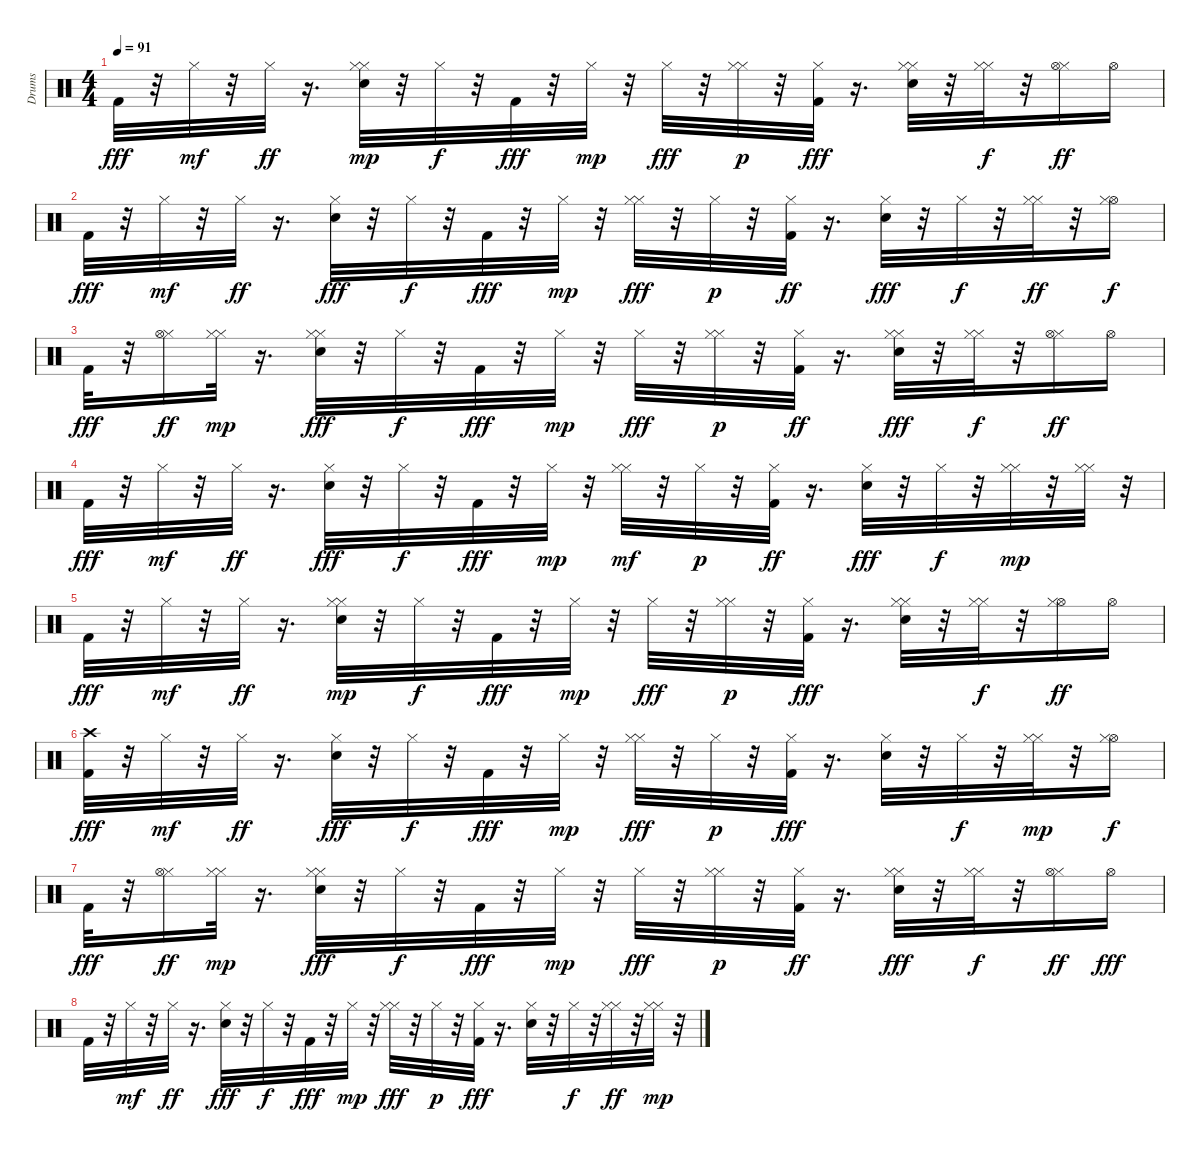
\track ("Drums" "Drums") {instrument percussion}
\staff {score}
\articulation defaults
\ts (4 4)
\tempo 91
\clef neutral
\ks c "Kick (hit) 2".32{dy fff}
r.32 "Hi-Hat (closed)".32{dy mf} r.32 "Hi-Hat (closed)".32{dy ff} r.16{d} ("Hi-Hat (closed)" "Snare (hit) 2" "Hi-Hat (closed)").32{dy mp} r.32 "Hi-Hat (closed)".32{dy f} r.32 "Kick (hit) 2".32{dy fff} r.32 "Hi-Hat (closed)".32{dy mp} r.32 "Hi-Hat (closed)".32{dy fff} r.32 ("Hi-Hat (closed)" "Hi-Hat (closed)").32{dy p} r.32 ("Hi-Hat (closed)" "Kick (hit) 2").32{dy fff} r.16{d} ("Hi-Hat (closed)" "Hi-Hat (closed)" "Snare (hit) 2").32 r.32 ("Hi-Hat (closed)" "Hi-Hat (closed)").32{dy f} r.32 ("Hi-Hat (closed)" "Hi-Hat (open)").16{dy ff} "Hi-Hat (open)".16 |
"Kick (hit) 2".32{dy fff} r.32 "Hi-Hat (closed)".32{dy mf} r.32 "Hi-Hat (closed)".32{dy ff} r.16{d} ("Snare (hit) 2" "Hi-Hat (closed)").32{dy fff} r.32 "Hi-Hat (closed)".32{dy f} r.32 "Kick (hit) 2".32{dy fff} r.32 "Hi-Hat (closed)".32{dy mp} r.32 ("Hi-Hat (closed)" "Hi-Hat (closed)").32{dy fff} r.32 "Hi-Hat (closed)".32{dy p} r.32 ("Kick (hit) 2" "Hi-Hat (closed)").32{dy ff} r.16{d} ("Snare (hit) 2" "Hi-Hat (closed)").32{dy fff} r.32 "Hi-Hat (closed)".32{dy f} r.32 ("Hi-Hat (closed)" "Hi-Hat (closed)").32{dy ff} r.32 ("Hi-Hat (open)" "Hi-Hat (closed)").16{dy f} |
"Kick (hit) 2".32{dy fff} r.32 ("Hi-Hat (closed)" "Hi-Hat (open)").16{dy ff} ("Hi-Hat (closed)" "Hi-Hat (closed)").32{dy mp} r.16{d} ("Hi-Hat (closed)" "Hi-Hat (closed)" "Snare (hit) 2").32{dy fff} r.32 "Hi-Hat (closed)".32{dy f} r.32 "Kick (hit) 2".32{dy fff} r.32 "Hi-Hat (closed)".32{dy mp} r.32 "Hi-Hat (closed)".32{dy fff} r.32 ("Hi-Hat (closed)" "Hi-Hat (closed)").32{dy p} r.32 ("Kick (hit) 2" "Hi-Hat (closed)").32{dy ff} r.16{d} ("Hi-Hat (closed)" "Snare (hit) 2" "Hi-Hat (closed)").32{dy fff} r.32 ("Hi-Hat (closed)" "Hi-Hat (closed)").32{dy f} r.32 ("Hi-Hat (closed)" "Hi-Hat (open)").16{dy ff} "Hi-Hat (open)".16 |
"Kick (hit) 2".32{dy fff} r.32 "Hi-Hat (closed)".32{dy mf} r.32 "Hi-Hat (closed)".32{dy ff} r.16{d} ("Snare (hit) 2" "Hi-Hat (closed)").32{dy fff} r.32 "Hi-Hat (closed)".32{dy f} r.32 "Kick (hit) 2".32{dy fff} r.32 "Hi-Hat (closed)".32{dy mp} r.32 ("Hi-Hat (closed)" "Hi-Hat (closed)").32{dy mf} r.32 "Hi-Hat (closed)".32{dy p} r.32 ("Kick (hit) 2" "Hi-Hat (closed)").32{dy ff} r.16{d} ("Snare (hit) 2" "Hi-Hat (closed)").32{dy fff} r.32 "Hi-Hat (closed)".32{dy f} r.32 ("Hi-Hat (closed)" "Hi-Hat (closed)").32{dy mp} r.32 ("Hi-Hat (closed)" "Hi-Hat (closed)").32 r.32 |
"Kick (hit) 2".32{dy fff} r.32 "Hi-Hat (closed)".32{dy mf} r.32 "Hi-Hat (closed)".32{dy ff} r.16{d} ("Hi-Hat (closed)" "Snare (hit) 2" "Hi-Hat (closed)").32{dy mp} r.32 "Hi-Hat (closed)".32{dy f} r.32 "Kick (hit) 2".32{dy fff} r.32 "Hi-Hat (closed)".32{dy mp} r.32 "Hi-Hat (closed)".32{dy fff} r.32 ("Hi-Hat (closed)" "Hi-Hat (closed)").32{dy p} r.32 ("Hi-Hat (closed)" "Kick (hit) 2").32{dy fff} r.16{d} ("Hi-Hat (closed)" "Hi-Hat (closed)" "Snare (hit) 2").32 r.32 ("Hi-Hat (closed)" "Hi-Hat (closed)").32{dy f} r.32 ("Hi-Hat (open)" "Hi-Hat (closed)").16{dy ff} "Hi-Hat (open)".16 |
("Kick (hit) 2" "Crash high (hit)").32{dy fff} r.32 "Hi-Hat (closed)".32{dy mf} r.32 "Hi-Hat (closed)".32{dy ff} r.16{d} ("Snare (hit) 2" "Hi-Hat (closed)").32{dy fff} r.32 "Hi-Hat (closed)".32{dy f} r.32 "Kick (hit) 2".32{dy fff} r.32 "Hi-Hat (closed)".32{dy mp} r.32 ("Hi-Hat (closed)" "Hi-Hat (closed)").32{dy fff} r.32 "Hi-Hat (closed)".32{dy p} r.32 ("Hi-Hat (closed)" "Kick (hit) 2").32{dy fff} r.16{d} ("Snare (hit) 2" "Hi-Hat (closed)").32 r.32 "Hi-Hat (closed)".32{dy f} r.32 ("Hi-Hat (closed)" "Hi-Hat (closed)").32{dy mp} r.32 ("Hi-Hat (open)" "Hi-Hat (closed)").16{dy f} |
"Kick (hit) 2".32{dy fff} r.32 ("Hi-Hat (closed)" "Hi-Hat (open)").16{dy ff} ("Hi-Hat (closed)" "Hi-Hat (closed)").32{dy mp} r.16{d} ("Hi-Hat (closed)" "Hi-Hat (closed)" "Snare (hit) 2").32{dy fff} r.32 "Hi-Hat (closed)".32{dy f} r.32 "Kick (hit) 2".32{dy fff} r.32 "Hi-Hat (closed)".32{dy mp} r.32 "Hi-Hat (closed)".32{dy fff} r.32 ("Hi-Hat (closed)" "Hi-Hat (closed)").32{dy p} r.32 ("Kick (hit) 2" "Hi-Hat (closed)").32{dy ff} r.16{d} ("Hi-Hat (closed)" "Snare (hit) 2" "Hi-Hat (closed)").32{dy fff} r.32 ("Hi-Hat (closed)" "Hi-Hat (closed)").32{dy f} r.32 ("Hi-Hat (closed)" "Hi-Hat (open)").16{dy ff} "Hi-Hat (open)".16{dy fff} |
"Kick (hit) 2".32 r.32 "Hi-Hat (closed)".32{dy mf} r.32 "Hi-Hat (closed)".32{dy ff} r.16{d} ("Snare (hit) 2" "Hi-Hat (closed)").32{dy fff} r.32 "Hi-Hat (closed)".32{dy f} r.32 "Kick (hit) 2".32{dy fff} r.32 "Hi-Hat (closed)".32{dy mp} r.32 ("Hi-Hat (closed)" "Hi-Hat (closed)").32{dy fff} r.32 "Hi-Hat (closed)".32{dy p} r.32 ("Hi-Hat (closed)" "Kick (hit) 2").32{dy fff} r.16{d} ("Hi-Hat (closed)" "Snare (hit) 2").32 r.32 "Hi-Hat (closed)".32{dy f} r.32 ("Hi-Hat (closed)" "Hi-Hat (closed)").32{dy ff} r.32 ("Hi-Hat (closed)" "Hi-Hat (closed)").32{dy mp} r.32
